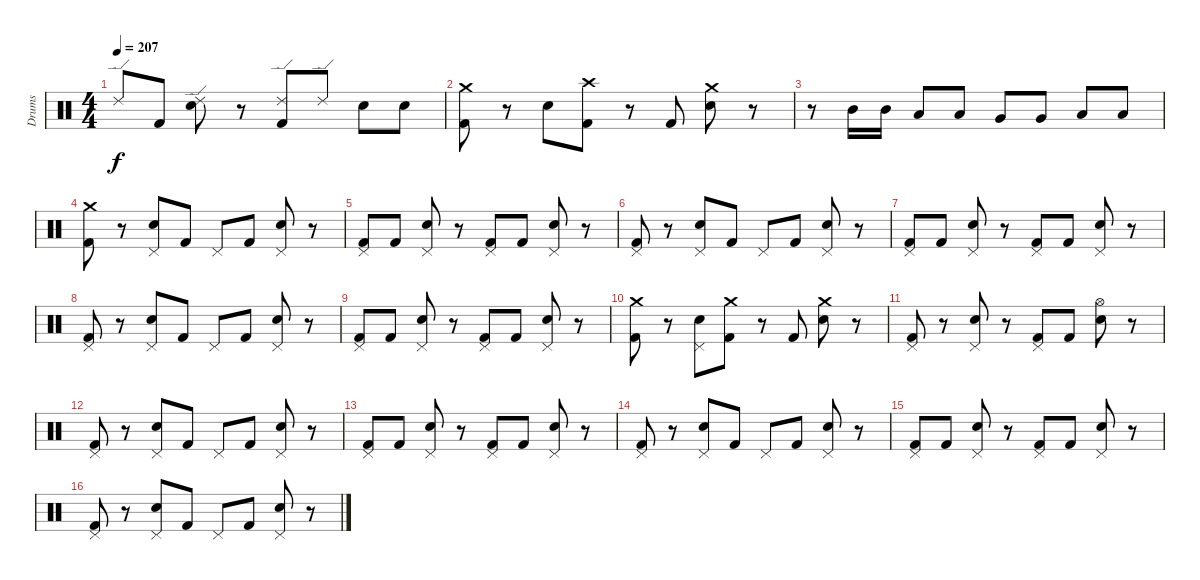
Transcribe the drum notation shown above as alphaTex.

\track ("Drums" "Drums") {instrument percussion}
\staff {score}
\articulation defaults
\ts (4 4)
\tempo 207
\clef neutral
\ks c "Ride (edge) 2".8{dy f} "Kick (hit) 2".8
("Ride (edge) 2" "Snare (hit) 2").8 r.8 ("Ride (edge) 2" "Kick (hit) 2").8 "Ride (edge) 2".8 "Snare (hit) 2".8 "Snare (hit) 2".8 |
("Crash medium (hit)" "Kick (hit) 2").8 r.8 "Snare (hit) 2".8 ("Crash high (hit)" "Kick (hit) 2").8 r.8 "Kick (hit) 2".8 ("Crash medium (hit)" "Snare (hit) 2").8 r.8 |
r.8 "Mid Tom (hit)".16 "Mid Tom (hit)".16 "Low Tom (hit)".8 "Low Tom (hit)".8 "Very Low Tom (hit)".8 "Very Low Tom (hit)".8 "Low Floor Tom (hit)".8 "Low Floor Tom (hit)".8 |
("Crash medium (hit)" "Kick (hit) 2").8 r.8 ("Pedal Hi-Hat (hit)" "Snare (hit) 2").8 "Kick (hit) 2".8 "Pedal Hi-Hat (hit)".8 "Kick (hit) 2".8 ("Pedal Hi-Hat (hit)" "Snare (hit) 2").8 r.8 |
("Pedal Hi-Hat (hit)" "Kick (hit) 2").8 "Kick (hit) 2".8 ("Pedal Hi-Hat (hit)" "Snare (hit) 2").8 r.8 ("Pedal Hi-Hat (hit)" "Kick (hit) 2").8 "Kick (hit) 2".8 ("Pedal Hi-Hat (hit)" "Snare (hit) 2").8 r.8 |
("Pedal Hi-Hat (hit)" "Kick (hit) 2").8 r.8 ("Pedal Hi-Hat (hit)" "Snare (hit) 2").8 "Kick (hit) 2".8 "Pedal Hi-Hat (hit)".8 "Kick (hit) 2".8 ("Pedal Hi-Hat (hit)" "Snare (hit) 2").8 r.8 |
("Pedal Hi-Hat (hit)" "Kick (hit) 2").8 "Kick (hit) 2".8 ("Pedal Hi-Hat (hit)" "Snare (hit) 2").8 r.8 ("Pedal Hi-Hat (hit)" "Kick (hit) 2").8 "Kick (hit) 2".8 ("Pedal Hi-Hat (hit)" "Snare (hit) 2").8 r.8 |
("Pedal Hi-Hat (hit)" "Kick (hit) 2").8 r.8 ("Pedal Hi-Hat (hit)" "Snare (hit) 2").8 "Kick (hit) 2".8 "Pedal Hi-Hat (hit)".8 "Kick (hit) 2".8 ("Pedal Hi-Hat (hit)" "Snare (hit) 2").8 r.8 |
("Pedal Hi-Hat (hit)" "Kick (hit) 2").8 "Kick (hit) 2".8 ("Pedal Hi-Hat (hit)" "Snare (hit) 2").8 r.8 ("Pedal Hi-Hat (hit)" "Kick (hit) 2").8 "Kick (hit) 2".8 ("Pedal Hi-Hat (hit)" "Snare (hit) 2").8 r.8 |
("Crash medium (hit)" "Kick (hit) 2").8 r.8 ("Pedal Hi-Hat (hit)" "Snare (hit) 2").8 ("Crash medium (hit)" "Kick (hit) 2").8 r.8 "Kick (hit) 2".8 ("Crash medium (hit)" "Snare (hit) 2").8 r.8 |
("Pedal Hi-Hat (hit)" "Kick (hit) 2").8 r.8 ("Pedal Hi-Hat (hit)" "Snare (hit) 2").8 r.8 ("Pedal Hi-Hat (hit)" "Kick (hit) 2").8 "Kick (hit) 2".8 ("Hi-Hat (open)" "Snare (hit) 2").8 r.8 |
("Pedal Hi-Hat (hit)" "Kick (hit) 2").8 r.8 ("Pedal Hi-Hat (hit)" "Snare (hit) 2").8 "Kick (hit) 2".8 "Pedal Hi-Hat (hit)".8 "Kick (hit) 2".8 ("Pedal Hi-Hat (hit)" "Snare (hit) 2").8 r.8 |
("Pedal Hi-Hat (hit)" "Kick (hit) 2").8 "Kick (hit) 2".8 ("Pedal Hi-Hat (hit)" "Snare (hit) 2").8 r.8 ("Pedal Hi-Hat (hit)" "Kick (hit) 2").8 "Kick (hit) 2".8 ("Pedal Hi-Hat (hit)" "Snare (hit) 2").8 r.8 |
("Pedal Hi-Hat (hit)" "Kick (hit) 2").8 r.8 ("Pedal Hi-Hat (hit)" "Snare (hit) 2").8 "Kick (hit) 2".8 "Pedal Hi-Hat (hit)".8 "Kick (hit) 2".8 ("Pedal Hi-Hat (hit)" "Snare (hit) 2").8 r.8 |
("Pedal Hi-Hat (hit)" "Kick (hit) 2").8 "Kick (hit) 2".8 ("Pedal Hi-Hat (hit)" "Snare (hit) 2").8 r.8 ("Pedal Hi-Hat (hit)" "Kick (hit) 2").8 "Kick (hit) 2".8 ("Pedal Hi-Hat (hit)" "Snare (hit) 2").8 r.8 |
("Pedal Hi-Hat (hit)" "Kick (hit) 2").8 r.8 ("Pedal Hi-Hat (hit)" "Snare (hit) 2").8 "Kick (hit) 2".8 "Pedal Hi-Hat (hit)".8 "Kick (hit) 2".8 ("Pedal Hi-Hat (hit)" "Snare (hit) 2").8 r.8
